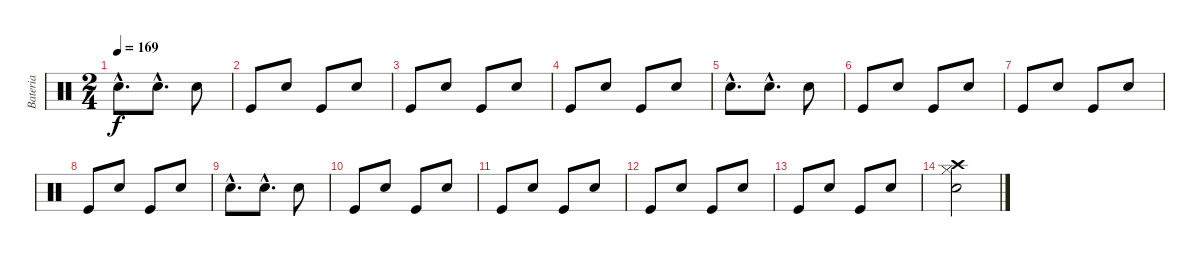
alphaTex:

\track ("Bateria" "Bateria") {instrument percussion}
\staff {score}
\articulation defaults
\ts (2 4)
\tempo 169
\clef neutral
\ks c "Snare (hit) 2"{hac}.8{d dy f} "Snare (hit) 2"{hac}.8{d} "Snare (hit) 2".8
|
"Kick (hit)".8 "Snare (hit) 2".8 "Kick (hit)".8 "Snare (hit) 2".8 |
"Kick (hit)".8 "Snare (hit) 2".8 "Kick (hit)".8 "Snare (hit) 2".8 |
"Kick (hit)".8 "Snare (hit) 2".8 "Kick (hit)".8 "Snare (hit) 2".8 |
"Snare (hit) 2"{hac}.8{d} "Snare (hit) 2"{hac}.8{d} "Snare (hit) 2".8 |
"Kick (hit)".8 "Snare (hit) 2".8 "Kick (hit)".8 "Snare (hit) 2".8 |
"Kick (hit)".8 "Snare (hit) 2".8 "Kick (hit)".8 "Snare (hit) 2".8 |
"Kick (hit)".8 "Snare (hit) 2".8 "Kick (hit)".8 "Snare (hit) 2".8 |
"Snare (hit) 2"{hac}.8{d} "Snare (hit) 2"{hac}.8{d} "Snare (hit) 2".8 |
"Kick (hit)".8 "Snare (hit) 2".8 "Kick (hit)".8 "Snare (hit) 2".8 |
"Kick (hit)".8 "Snare (hit) 2".8 "Kick (hit)".8 "Snare (hit) 2".8 |
"Kick (hit)".8 "Snare (hit) 2".8 "Kick (hit)".8 "Snare (hit) 2".8 |
"Kick (hit)".8 "Snare (hit) 2".8 "Kick (hit)".8 "Snare (hit) 2".8 |
("Snare (hit) 2" "Hi-Hat (closed)" "Crash high (hit)").2
